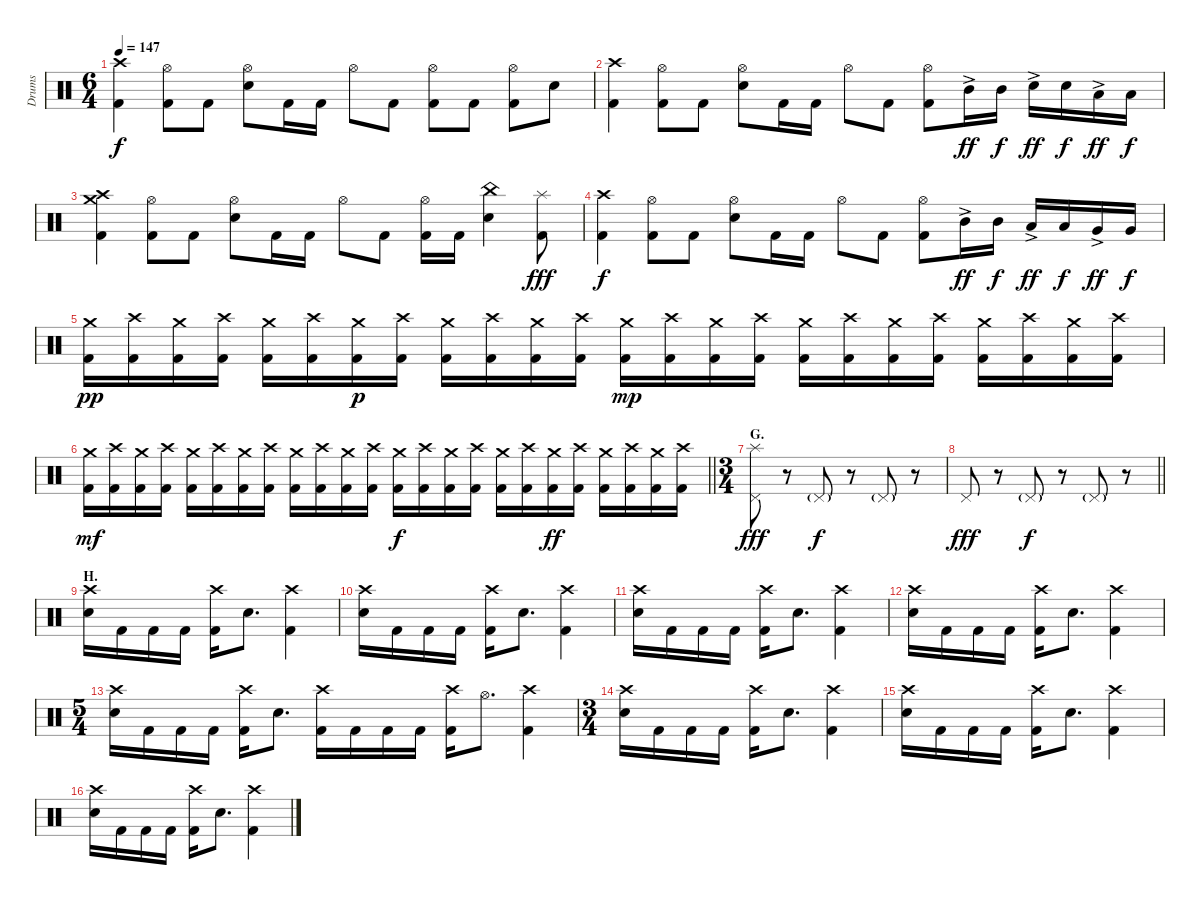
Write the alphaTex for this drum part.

\track ("Drums" "Drums") {instrument percussion}
\staff {score}
\articulation defaults
\ts (6 4)
\tempo 147
\clef neutral
\ks c
("Crash high (hit)" "Kick (hit) 2").4{dy f} ("Hi-Hat (open)" "Kick (hit) 2").8 "Kick (hit) 2".8 ("Hi-Hat (open)" "Electric Snare (hit)").8 "Kick (hit) 2".16 "Kick (hit) 2".16 "Hi-Hat (open)".8 "Kick (hit) 2".8 ("Hi-Hat (open)" "Kick (hit) 2").8 "Kick (hit) 2".8 ("Hi-Hat (open)" "Kick (hit) 2").8 "Electric Snare (hit)".8 |
("Crash high (hit)" "Kick (hit) 2").4 ("Hi-Hat (open)" "Kick (hit) 2").8 "Kick (hit) 2".8 ("Hi-Hat (open)" "Electric Snare (hit)").8 "Kick (hit) 2".16 "Kick (hit) 2".16 "Hi-Hat (open)".8 "Kick (hit) 2".8 ("Hi-Hat (open)" "Kick (hit) 2").8 "Mid Tom (hit)"{ac}.16{dy ff} "Mid Tom (hit)".16{dy f} "Electric Snare (hit)"{ac}.16{dy ff} "Electric Snare (hit)".16{dy f} "Low Tom (hit)"{ac}.16{dy ff} "Low Tom (hit)".16{dy f} |
("Crash medium (hit)" "Crash high (hit)" "Kick (hit) 2").4 ("Hi-Hat (open)" "Kick (hit) 2").8 "Kick (hit) 2".8 ("Hi-Hat (open)" "Electric Snare (hit)").8 "Kick (hit) 2".16 "Kick (hit) 2".16 "Hi-Hat (open)".8 "Kick (hit) 2".8 ("Hi-Hat (open)" "Kick (hit) 2").16 "Kick (hit) 2".16 ("China (hit)" "Electric Snare (hit)").4 ("Splash (hit)" "Kick (hit) 2").8{dy fff} |
("Crash high (hit)" "Kick (hit) 2").4{dy f} ("Hi-Hat (open)" "Kick (hit) 2").8 "Kick (hit) 2".8 ("Hi-Hat (open)" "Electric Snare (hit)").8 "Kick (hit) 2".16 "Kick (hit) 2".16 "Hi-Hat (open)".8 "Kick (hit) 2".8 ("Hi-Hat (open)" "Kick (hit) 2").8 "Mid Tom (hit)"{ac}.16{dy ff} "Mid Tom (hit)".16{dy f} "Low Tom (hit)"{ac}.16{dy ff} "Low Tom (hit)".16{dy f} "Very Low Tom (hit)"{ac}.16{dy ff} "Very Low Tom (hit)".16{dy f} |
("Crash medium (hit)" "Kick (hit) 2").16{dy pp} ("Crash high (hit)" "Kick (hit) 2").16 ("Crash medium (hit)" "Kick (hit) 2").16 ("Crash high (hit)" "Kick (hit) 2").16 ("Crash medium (hit)" "Kick (hit) 2").16 ("Crash high (hit)" "Kick (hit) 2").16 ("Crash medium (hit)" "Kick (hit) 2").16{dy p} ("Crash high (hit)" "Kick (hit) 2").16 ("Crash medium (hit)" "Kick (hit) 2").16 ("Crash high (hit)" "Kick (hit) 2").16 ("Crash medium (hit)" "Kick (hit) 2").16 ("Crash high (hit)" "Kick (hit) 2").16 ("Crash medium (hit)" "Kick (hit) 2").16{dy mp} ("Crash high (hit)" "Kick (hit) 2").16 ("Crash medium (hit)" "Kick (hit) 2").16 ("Crash high (hit)" "Kick (hit) 2").16 ("Crash medium (hit)" "Kick (hit) 2").16 ("Crash high (hit)" "Kick (hit) 2").16 ("Crash medium (hit)" "Kick (hit) 2").16 ("Crash high (hit)" "Kick (hit) 2").16 ("Crash medium (hit)" "Kick (hit) 2").16 ("Crash high (hit)" "Kick (hit) 2").16 ("Crash medium (hit)" "Kick (hit) 2").16 ("Crash high (hit)" "Kick (hit) 2").16 |
\barLineRight lightlight
("Crash medium (hit)" "Kick (hit) 2").16{dy mf} ("Crash high (hit)" "Kick (hit) 2").16 ("Crash medium (hit)" "Kick (hit) 2").16 ("Crash high (hit)" "Kick (hit) 2").16 ("Crash medium (hit)" "Kick (hit) 2").16 ("Crash high (hit)" "Kick (hit) 2").16 ("Crash medium (hit)" "Kick (hit) 2").16 ("Crash high (hit)" "Kick (hit) 2").16 ("Crash medium (hit)" "Kick (hit) 2").16 ("Crash high (hit)" "Kick (hit) 2").16 ("Crash medium (hit)" "Kick (hit) 2").16 ("Crash high (hit)" "Kick (hit) 2").16 ("Crash medium (hit)" "Kick (hit) 2").16{dy f} ("Crash high (hit)" "Kick (hit) 2").16 ("Crash medium (hit)" "Kick (hit) 2").16 ("Crash high (hit)" "Kick (hit) 2").16 ("Crash medium (hit)" "Kick (hit) 2").16 ("Crash high (hit)" "Kick (hit) 2").16 ("Crash medium (hit)" "Kick (hit) 2").16{dy ff} ("Crash high (hit)" "Kick (hit) 2").16 ("Crash medium (hit)" "Kick (hit) 2").16 ("Crash high (hit)" "Kick (hit) 2").16 ("Crash medium (hit)" "Kick (hit) 2").16 ("Crash high (hit)" "Kick (hit) 2").16 |
\ts (3 4)
\section ("" "G.")
("Splash (hit)" "Pedal Hi-Hat (hit)").8{dy fff} r.8 "Pedal Hi-Hat (hit)"{g}.8{dy f} r.8 "Pedal Hi-Hat (hit)"{g}.8 r.8 |
\barLineRight lightlight "Pedal Hi-Hat (hit)".8{dy fff}
r.8 "Pedal Hi-Hat (hit)"{g}.8{dy f} r.8 "Pedal Hi-Hat (hit)"{g}.8 r.8 |
\section ("" "H.")
("Crash high (hit)" "Electric Snare (hit)").16 "Kick (hit) 2".16 "Kick (hit) 2".16 "Kick (hit) 2".16 ("Crash high (hit)" "Kick (hit) 2").16 "Electric Snare (hit)".8{d} ("Crash high (hit)" "Kick (hit) 2").4 |
("Crash high (hit)" "Electric Snare (hit)").16 "Kick (hit) 2".16 "Kick (hit) 2".16 "Kick (hit) 2".16 ("Crash high (hit)" "Kick (hit) 2").16 "Electric Snare (hit)".8{d} ("Crash high (hit)" "Kick (hit) 2").4 |
("Crash high (hit)" "Electric Snare (hit)").16 "Kick (hit) 2".16 "Kick (hit) 2".16 "Kick (hit) 2".16 ("Crash high (hit)" "Kick (hit) 2").16 "Electric Snare (hit)".8{d} ("Crash high (hit)" "Kick (hit) 2").4 |
("Crash high (hit)" "Electric Snare (hit)").16 "Kick (hit) 2".16 "Kick (hit) 2".16 "Kick (hit) 2".16 ("Crash high (hit)" "Kick (hit) 2").16 "Electric Snare (hit)".8{d} ("Crash high (hit)" "Kick (hit) 2").4 |
\ts (5 4)
("Crash high (hit)" "Electric Snare (hit)").16 "Kick (hit) 2".16 "Kick (hit) 2".16 "Kick (hit) 2".16 ("Crash high (hit)" "Kick (hit) 2").16 "Electric Snare (hit)".8{d} ("Crash high (hit)" "Kick (hit) 2").16 "Kick (hit) 2".16 "Kick (hit) 2".16 "Kick (hit) 2".16 ("Crash high (hit)" "Kick (hit) 2").16 "Hi-Hat (open)".8{d} ("Crash high (hit)" "Kick (hit) 2").4 |
\ts (3 4)
("Crash high (hit)" "Electric Snare (hit)").16 "Kick (hit) 2".16 "Kick (hit) 2".16 "Kick (hit) 2".16 ("Crash high (hit)" "Kick (hit) 2").16 "Electric Snare (hit)".8{d} ("Crash high (hit)" "Kick (hit) 2").4 |
("Crash high (hit)" "Electric Snare (hit)").16 "Kick (hit) 2".16 "Kick (hit) 2".16 "Kick (hit) 2".16 ("Crash high (hit)" "Kick (hit) 2").16 "Electric Snare (hit)".8{d} ("Crash high (hit)" "Kick (hit) 2").4 |
("Crash high (hit)" "Electric Snare (hit)").16 "Kick (hit) 2".16 "Kick (hit) 2".16 "Kick (hit) 2".16 ("Crash high (hit)" "Kick (hit) 2").16 "Electric Snare (hit)".8{d} ("Crash high (hit)" "Kick (hit) 2").4
